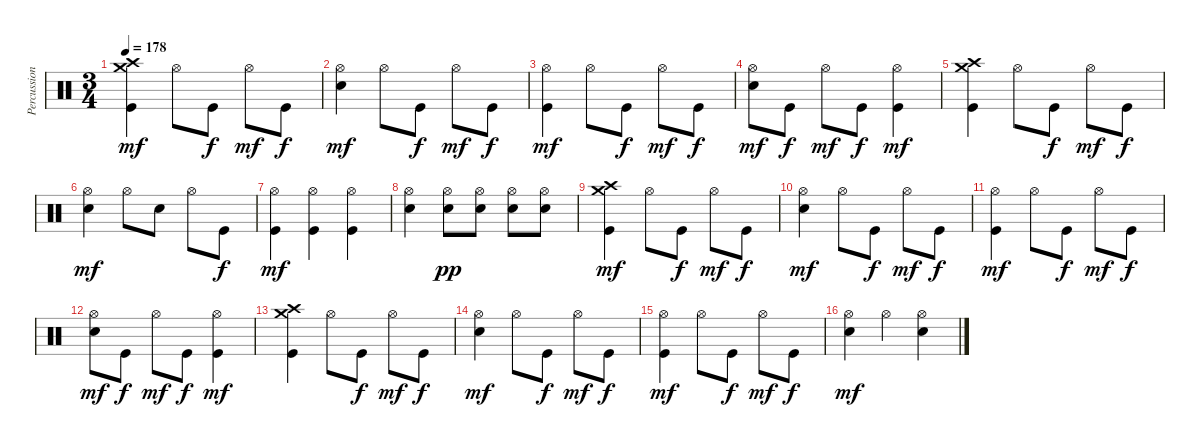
\track ("Percussions" "Percussion") {instrument percussion}
\staff {score}
\articulation defaults
\ts (3 4)
\tempo 178
\clef neutral
\ks c
("Kick (hit)" "Crash high (hit)" "Crash medium (hit)").4{dy mf} "Hi-Hat (open)".8 "Kick (hit)".8{dy f} "Hi-Hat (open)".8{dy mf} "Kick (hit)".8{dy f} |
("Electric Snare (hit)" "Hi-Hat (open)").4{dy mf} "Hi-Hat (open)".8 "Kick (hit)".8{dy f} "Hi-Hat (open)".8{dy mf} "Kick (hit)".8{dy f} |
("Kick (hit)" "Hi-Hat (open)").4{dy mf} "Hi-Hat (open)".8 "Kick (hit)".8{dy f} "Hi-Hat (open)".8{dy mf} "Kick (hit)".8{dy f} |
("Electric Snare (hit)" "Hi-Hat (open)").8{dy mf} "Kick (hit)".8{dy f} "Hi-Hat (open)".8{dy mf} "Kick (hit)".8{dy f} ("Kick (hit)" "Hi-Hat (open)").4{dy mf} |
("Kick (hit)" "Crash high (hit)" "Crash medium (hit)").4 "Hi-Hat (open)".8 "Kick (hit)".8{dy f} "Hi-Hat (open)".8{dy mf} "Kick (hit)".8{dy f} |
("Electric Snare (hit)" "Hi-Hat (open)").4{dy mf} "Hi-Hat (open)".8 "Electric Snare (hit)".8 "Hi-Hat (open)".8 "Kick (hit)".8{dy f} |
("Kick (hit)" "Hi-Hat (open)").4{dy mf} ("Kick (hit)" "Hi-Hat (open)").4 ("Kick (hit)" "Hi-Hat (open)").4 |
("Electric Snare (hit)" "Hi-Hat (open)").4 ("Electric Snare (hit)" "Hi-Hat (open)").8{dy pp} ("Electric Snare (hit)" "Hi-Hat (open)").8 ("Electric Snare (hit)" "Hi-Hat (open)").8 ("Electric Snare (hit)" "Hi-Hat (open)").8 |
("Kick (hit)" "Crash high (hit)" "Crash medium (hit)").4{dy mf} "Hi-Hat (open)".8 "Kick (hit)".8{dy f} "Hi-Hat (open)".8{dy mf} "Kick (hit)".8{dy f} |
("Electric Snare (hit)" "Hi-Hat (open)").4{dy mf} "Hi-Hat (open)".8 "Kick (hit)".8{dy f} "Hi-Hat (open)".8{dy mf} "Kick (hit)".8{dy f} |
("Kick (hit)" "Hi-Hat (open)").4{dy mf} "Hi-Hat (open)".8 "Kick (hit)".8{dy f} "Hi-Hat (open)".8{dy mf} "Kick (hit)".8{dy f} |
("Electric Snare (hit)" "Hi-Hat (open)").8{dy mf} "Kick (hit)".8{dy f} "Hi-Hat (open)".8{dy mf} "Kick (hit)".8{dy f} ("Kick (hit)" "Hi-Hat (open)").4{dy mf} |
("Kick (hit)" "Crash high (hit)" "Crash medium (hit)").4 "Hi-Hat (open)".8 "Kick (hit)".8{dy f} "Hi-Hat (open)".8{dy mf} "Kick (hit)".8{dy f} |
("Electric Snare (hit)" "Hi-Hat (open)").4{dy mf} "Hi-Hat (open)".8 "Kick (hit)".8{dy f} "Hi-Hat (open)".8{dy mf} "Kick (hit)".8{dy f} |
("Kick (hit)" "Hi-Hat (open)").4{dy mf} "Hi-Hat (open)".8 "Kick (hit)".8{dy f} "Hi-Hat (open)".8{dy mf} "Kick (hit)".8{dy f} |
("Electric Snare (hit)" "Hi-Hat (open)").4{dy mf} "Hi-Hat (open)".4 ("Electric Snare (hit)" "Hi-Hat (open)").4
